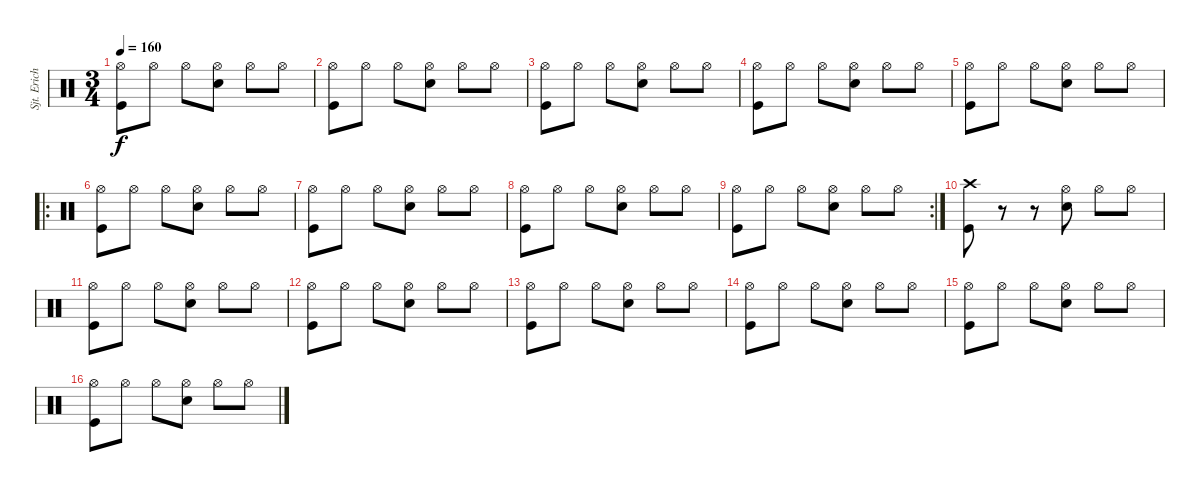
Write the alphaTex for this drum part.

\track ("Sjt. Erichsen" "Sjt. Erich") {instrument percussion}
\staff {score}
\articulation defaults
\ts (3 4)
\tempo 160
\clef neutral
\ks c
("Hi-Hat (open)" "Kick (hit)").8{dy f} "Hi-Hat (open)".8 "Hi-Hat (open)".8 ("Hi-Hat (open)" "Electric Snare (hit)").8 "Hi-Hat (open)".8 "Hi-Hat (open)".8 |
("Hi-Hat (open)" "Kick (hit)").8 "Hi-Hat (open)".8 "Hi-Hat (open)".8 ("Hi-Hat (open)" "Electric Snare (hit)").8 "Hi-Hat (open)".8 "Hi-Hat (open)".8 |
("Hi-Hat (open)" "Kick (hit)").8 "Hi-Hat (open)".8 "Hi-Hat (open)".8 ("Hi-Hat (open)" "Electric Snare (hit)").8 "Hi-Hat (open)".8 "Hi-Hat (open)".8 |
("Hi-Hat (open)" "Kick (hit)").8 "Hi-Hat (open)".8 "Hi-Hat (open)".8 ("Hi-Hat (open)" "Electric Snare (hit)").8 "Hi-Hat (open)".8 "Hi-Hat (open)".8 |
("Hi-Hat (open)" "Kick (hit)").8 "Hi-Hat (open)".8 "Hi-Hat (open)".8 ("Hi-Hat (open)" "Electric Snare (hit)").8 "Hi-Hat (open)".8 "Hi-Hat (open)".8 |
\ro
("Hi-Hat (open)" "Kick (hit)").8 "Hi-Hat (open)".8 "Hi-Hat (open)".8 ("Hi-Hat (open)" "Electric Snare (hit)").8 "Hi-Hat (open)".8 "Hi-Hat (open)".8 |
("Hi-Hat (open)" "Kick (hit)").8 "Hi-Hat (open)".8 "Hi-Hat (open)".8 ("Hi-Hat (open)" "Electric Snare (hit)").8 "Hi-Hat (open)".8 "Hi-Hat (open)".8 |
("Hi-Hat (open)" "Kick (hit)").8 "Hi-Hat (open)".8 "Hi-Hat (open)".8 ("Hi-Hat (open)" "Electric Snare (hit)").8 "Hi-Hat (open)".8 "Hi-Hat (open)".8 |
\rc 2
("Hi-Hat (open)" "Kick (hit)").8 "Hi-Hat (open)".8 "Hi-Hat (open)".8 ("Hi-Hat (open)" "Electric Snare (hit)").8 "Hi-Hat (open)".8 "Hi-Hat (open)".8 |
("Crash high (hit)" "Kick (hit)").8 r.8 r.8 ("Hi-Hat (open)" "Electric Snare (hit)").8 "Hi-Hat (open)".8 "Hi-Hat (open)".8 |
("Hi-Hat (open)" "Kick (hit)").8 "Hi-Hat (open)".8 "Hi-Hat (open)".8 ("Hi-Hat (open)" "Electric Snare (hit)").8 "Hi-Hat (open)".8 "Hi-Hat (open)".8 |
("Hi-Hat (open)" "Kick (hit)").8 "Hi-Hat (open)".8 "Hi-Hat (open)".8 ("Hi-Hat (open)" "Electric Snare (hit)").8 "Hi-Hat (open)".8 "Hi-Hat (open)".8 |
("Hi-Hat (open)" "Kick (hit)").8 "Hi-Hat (open)".8 "Hi-Hat (open)".8 ("Hi-Hat (open)" "Electric Snare (hit)").8 "Hi-Hat (open)".8 "Hi-Hat (open)".8 |
("Hi-Hat (open)" "Kick (hit)").8 "Hi-Hat (open)".8 "Hi-Hat (open)".8 ("Hi-Hat (open)" "Electric Snare (hit)").8 "Hi-Hat (open)".8 "Hi-Hat (open)".8 |
("Hi-Hat (open)" "Kick (hit)").8 "Hi-Hat (open)".8 "Hi-Hat (open)".8 ("Hi-Hat (open)" "Electric Snare (hit)").8 "Hi-Hat (open)".8 "Hi-Hat (open)".8 |
("Hi-Hat (open)" "Kick (hit)").8 "Hi-Hat (open)".8 "Hi-Hat (open)".8 ("Hi-Hat (open)" "Electric Snare (hit)").8 "Hi-Hat (open)".8 "Hi-Hat (open)".8
